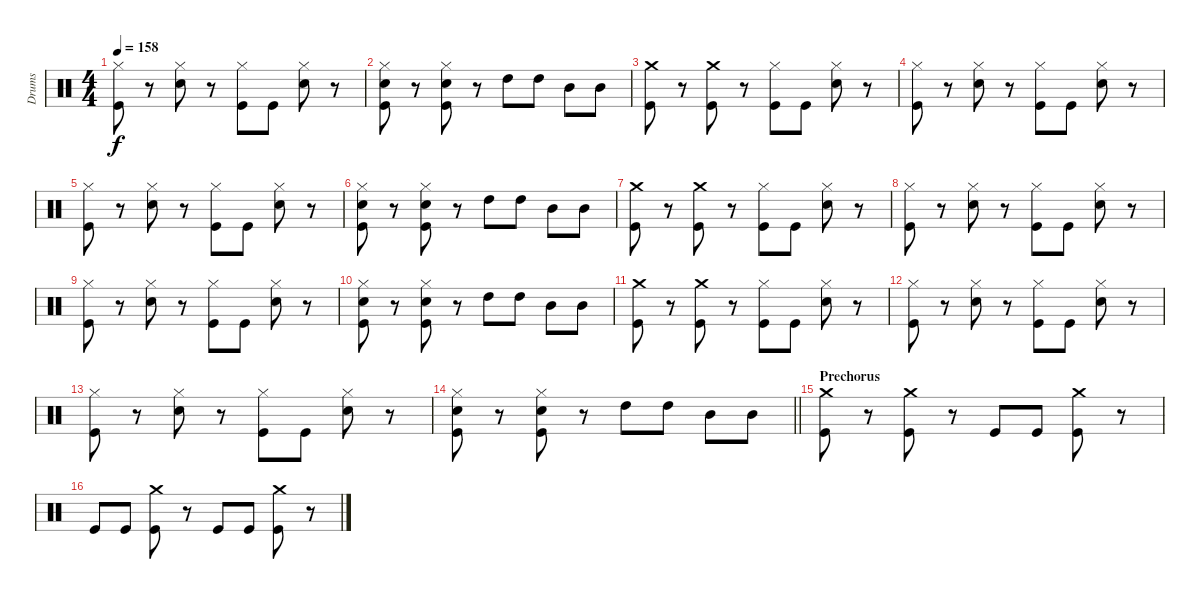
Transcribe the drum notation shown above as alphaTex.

\track ("Drums" "Drums") {instrument percussion}
\staff {score}
\articulation defaults
\ts (4 4)
\tempo 158
\clef neutral
\ks c
("Hi-Hat (closed)" "Kick (hit)").8{dy f} r.8 ("Hi-Hat (closed)" "Snare (hit) 2").8 r.8 ("Hi-Hat (closed)" "Kick (hit)").8 "Kick (hit)".8 ("Hi-Hat (closed)" "Snare (hit) 2").8 r.8 |
("Hi-Hat (closed)" "Snare (hit) 2" "Kick (hit)").8 r.8 ("Hi-Hat (closed)" "Snare (hit) 2" "Kick (hit)").8 r.8 "High Tom (hit)".8 "High Tom (hit)".8 "Mid Tom (hit)".8 "Mid Tom (hit)".8 |
("Crash medium (hit)" "Kick (hit)").8 r.8 ("Crash medium (hit)" "Kick (hit)").8 r.8 ("Hi-Hat (closed)" "Kick (hit)").8 "Kick (hit)".8 ("Hi-Hat (closed)" "Snare (hit) 2").8 r.8 |
("Hi-Hat (closed)" "Kick (hit)").8 r.8 ("Hi-Hat (closed)" "Snare (hit) 2").8 r.8 ("Hi-Hat (closed)" "Kick (hit)").8 "Kick (hit)".8 ("Hi-Hat (closed)" "Snare (hit) 2").8 r.8 |
("Hi-Hat (closed)" "Kick (hit)").8 r.8 ("Hi-Hat (closed)" "Snare (hit) 2").8 r.8 ("Hi-Hat (closed)" "Kick (hit)").8 "Kick (hit)".8 ("Hi-Hat (closed)" "Snare (hit) 2").8 r.8 |
("Hi-Hat (closed)" "Snare (hit) 2" "Kick (hit)").8 r.8 ("Hi-Hat (closed)" "Snare (hit) 2" "Kick (hit)").8 r.8 "High Tom (hit)".8 "High Tom (hit)".8 "Mid Tom (hit)".8 "Mid Tom (hit)".8 |
("Crash medium (hit)" "Kick (hit)").8 r.8 ("Crash medium (hit)" "Kick (hit)").8 r.8 ("Hi-Hat (closed)" "Kick (hit)").8 "Kick (hit)".8 ("Hi-Hat (closed)" "Snare (hit) 2").8 r.8 |
("Hi-Hat (closed)" "Kick (hit)").8 r.8 ("Hi-Hat (closed)" "Snare (hit) 2").8 r.8 ("Hi-Hat (closed)" "Kick (hit)").8 "Kick (hit)".8 ("Hi-Hat (closed)" "Snare (hit) 2").8 r.8 |
("Hi-Hat (closed)" "Kick (hit)").8 r.8 ("Hi-Hat (closed)" "Snare (hit) 2").8 r.8 ("Hi-Hat (closed)" "Kick (hit)").8 "Kick (hit)".8 ("Hi-Hat (closed)" "Snare (hit) 2").8 r.8 |
("Hi-Hat (closed)" "Snare (hit) 2" "Kick (hit)").8 r.8 ("Hi-Hat (closed)" "Snare (hit) 2" "Kick (hit)").8 r.8 "High Tom (hit)".8 "High Tom (hit)".8 "Mid Tom (hit)".8 "Mid Tom (hit)".8 |
("Crash medium (hit)" "Kick (hit)").8 r.8 ("Crash medium (hit)" "Kick (hit)").8 r.8 ("Hi-Hat (closed)" "Kick (hit)").8 "Kick (hit)".8 ("Hi-Hat (closed)" "Snare (hit) 2").8 r.8 |
("Hi-Hat (closed)" "Kick (hit)").8 r.8 ("Hi-Hat (closed)" "Snare (hit) 2").8 r.8 ("Hi-Hat (closed)" "Kick (hit)").8 "Kick (hit)".8 ("Hi-Hat (closed)" "Snare (hit) 2").8 r.8 |
("Hi-Hat (closed)" "Kick (hit)").8 r.8 ("Hi-Hat (closed)" "Snare (hit) 2").8 r.8 ("Hi-Hat (closed)" "Kick (hit)").8 "Kick (hit)".8 ("Hi-Hat (closed)" "Snare (hit) 2").8 r.8 |
\barLineRight lightlight
("Hi-Hat (closed)" "Snare (hit) 2" "Kick (hit)").8 r.8 ("Hi-Hat (closed)" "Snare (hit) 2" "Kick (hit)").8 r.8 "High Tom (hit)".8 "High Tom (hit)".8 "Mid Tom (hit)".8 "Mid Tom (hit)".8 |
\section ("" "Prechorus")
("Crash medium (hit)" "Kick (hit)").8 r.8 ("Crash medium (hit)" "Kick (hit)").8 r.8 "Kick (hit)".8 "Kick (hit)".8 ("Crash medium (hit)" "Kick (hit)").8 r.8 |
"Kick (hit)".8 "Kick (hit)".8 ("Crash medium (hit)" "Kick (hit)").8 r.8 "Kick (hit)".8 "Kick (hit)".8 ("Crash medium (hit)" "Kick (hit)").8 r.8
